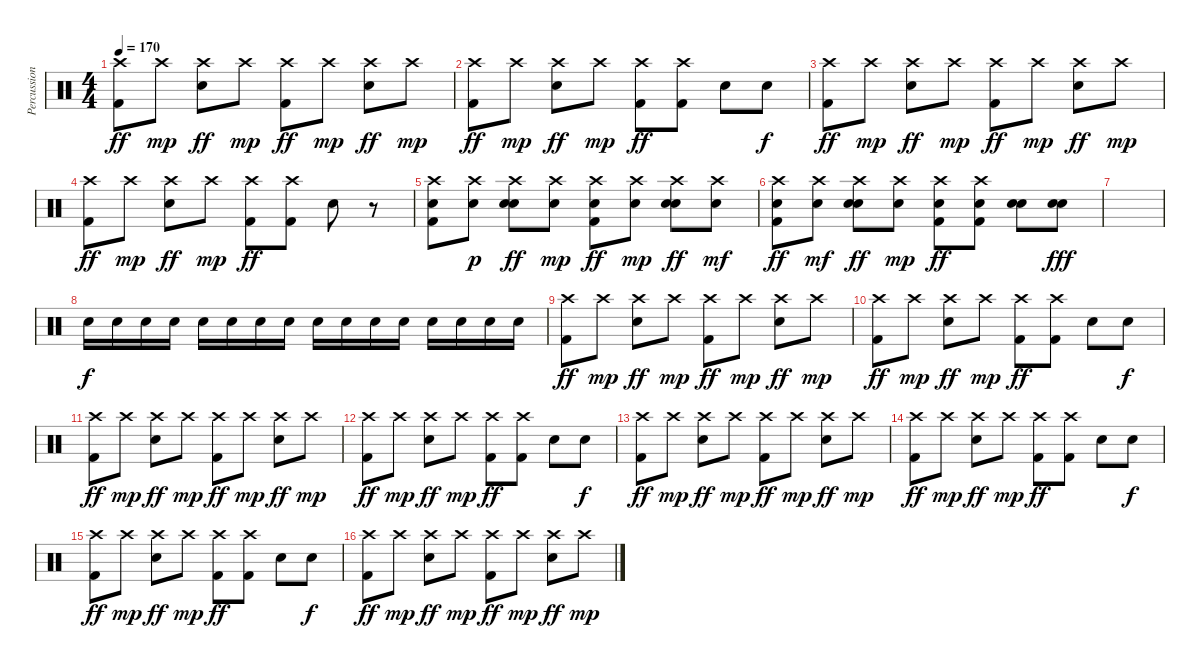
\track ("Percussion" "Percussion") {instrument percussion}
\staff {score}
\articulation defaults
\ts (4 4)
\tempo 170
\clef neutral
\ks c
("Crash high (hit)" "Kick (hit) 2").8{dy ff} "Crash high (hit)".8{dy mp} ("Crash high (hit)" "Electric Snare (hit)").8{dy ff} "Crash high (hit)".8{dy mp} ("Crash high (hit)" "Kick (hit) 2").8{dy ff} "Crash high (hit)".8{dy mp} ("Crash high (hit)" "Electric Snare (hit)").8{dy ff} "Crash high (hit)".8{dy mp} |
("Crash high (hit)" "Kick (hit) 2").8{dy ff} "Crash high (hit)".8{dy mp} ("Crash high (hit)" "Electric Snare (hit)").8{dy ff} "Crash high (hit)".8{dy mp} ("Crash high (hit)" "Kick (hit) 2").8{dy ff} ("Crash high (hit)" "Kick (hit) 2").8 "Electric Snare (hit)".8 "Electric Snare (hit)".8{dy f} |
("Crash high (hit)" "Kick (hit) 2").8{dy ff} "Crash high (hit)".8{dy mp} ("Crash high (hit)" "Electric Snare (hit)").8{dy ff} "Crash high (hit)".8{dy mp} ("Crash high (hit)" "Kick (hit) 2").8{dy ff} "Crash high (hit)".8{dy mp} ("Crash high (hit)" "Electric Snare (hit)").8{dy ff} "Crash high (hit)".8{dy mp} |
("Crash high (hit)" "Kick (hit) 2").8{dy ff} "Crash high (hit)".8{dy mp} ("Crash high (hit)" "Electric Snare (hit)").8{dy ff} "Crash high (hit)".8{dy mp} ("Crash high (hit)" "Kick (hit) 2").8{dy ff} ("Crash high (hit)" "Kick (hit) 2").8 "Electric Snare (hit)".8 r.8 |
("Crash high (hit)" "Electric Snare (hit)" "Kick (hit) 2").8 ("Crash high (hit)" "Electric Snare (hit)").8{dy p} ("Crash high (hit)" "Electric Snare (hit)" "Electric Snare (hit)").8{dy ff} ("Crash high (hit)" "Electric Snare (hit)").8{dy mp} ("Crash high (hit)" "Electric Snare (hit)" "Kick (hit) 2").8{dy ff} ("Crash high (hit)" "Electric Snare (hit)").8{dy mp} ("Crash high (hit)" "Electric Snare (hit)" "Electric Snare (hit)").8{dy ff} ("Crash high (hit)" "Electric Snare (hit)").8{dy mf} |
("Crash high (hit)" "Electric Snare (hit)" "Kick (hit) 2").8{dy ff} ("Crash high (hit)" "Electric Snare (hit)").8{dy mf} ("Crash high (hit)" "Electric Snare (hit)" "Electric Snare (hit)").8{dy ff} ("Crash high (hit)" "Electric Snare (hit)").8{dy mp} ("Crash high (hit)" "Electric Snare (hit)" "Kick (hit) 2").8{dy ff} ("Crash high (hit)" "Electric Snare (hit)" "Kick (hit) 2").8 ("Electric Snare (hit)" "Electric Snare (hit)").8 ("Electric Snare (hit)" "Electric Snare (hit)").8{dy fff} |
|
"Electric Snare (hit)".16{dy f} "Electric Snare (hit)".16 "Electric Snare (hit)".16 "Electric Snare (hit)".16 "Electric Snare (hit)".16 "Electric Snare (hit)".16 "Electric Snare (hit)".16 "Electric Snare (hit)".16 "Electric Snare (hit)".16 "Electric Snare (hit)".16 "Electric Snare (hit)".16 "Electric Snare (hit)".16 "Electric Snare (hit)".16 "Electric Snare (hit)".16 "Electric Snare (hit)".16 "Electric Snare (hit)".16 |
("Crash high (hit)" "Kick (hit) 2").8{dy ff} "Crash high (hit)".8{dy mp} ("Crash high (hit)" "Electric Snare (hit)").8{dy ff} "Crash high (hit)".8{dy mp} ("Crash high (hit)" "Kick (hit) 2").8{dy ff} "Crash high (hit)".8{dy mp} ("Crash high (hit)" "Electric Snare (hit)").8{dy ff} "Crash high (hit)".8{dy mp} |
("Crash high (hit)" "Kick (hit) 2").8{dy ff} "Crash high (hit)".8{dy mp} ("Crash high (hit)" "Electric Snare (hit)").8{dy ff} "Crash high (hit)".8{dy mp} ("Crash high (hit)" "Kick (hit) 2").8{dy ff} ("Crash high (hit)" "Kick (hit) 2").8 "Electric Snare (hit)".8 "Electric Snare (hit)".8{dy f} |
("Crash high (hit)" "Kick (hit) 2").8{dy ff} "Crash high (hit)".8{dy mp} ("Crash high (hit)" "Electric Snare (hit)").8{dy ff} "Crash high (hit)".8{dy mp} ("Crash high (hit)" "Kick (hit) 2").8{dy ff} "Crash high (hit)".8{dy mp} ("Crash high (hit)" "Electric Snare (hit)").8{dy ff} "Crash high (hit)".8{dy mp} |
("Crash high (hit)" "Kick (hit) 2").8{dy ff} "Crash high (hit)".8{dy mp} ("Crash high (hit)" "Electric Snare (hit)").8{dy ff} "Crash high (hit)".8{dy mp} ("Crash high (hit)" "Kick (hit) 2").8{dy ff} ("Crash high (hit)" "Kick (hit) 2").8 "Electric Snare (hit)".8 "Electric Snare (hit)".8{dy f} |
("Crash high (hit)" "Kick (hit) 2").8{dy ff} "Crash high (hit)".8{dy mp} ("Crash high (hit)" "Electric Snare (hit)").8{dy ff} "Crash high (hit)".8{dy mp} ("Crash high (hit)" "Kick (hit) 2").8{dy ff} "Crash high (hit)".8{dy mp} ("Crash high (hit)" "Electric Snare (hit)").8{dy ff} "Crash high (hit)".8{dy mp} |
("Crash high (hit)" "Kick (hit) 2").8{dy ff} "Crash high (hit)".8{dy mp} ("Crash high (hit)" "Electric Snare (hit)").8{dy ff} "Crash high (hit)".8{dy mp} ("Crash high (hit)" "Kick (hit) 2").8{dy ff} ("Crash high (hit)" "Kick (hit) 2").8 "Electric Snare (hit)".8 "Electric Snare (hit)".8{dy f} |
("Crash high (hit)" "Kick (hit) 2").8{dy ff} "Crash high (hit)".8{dy mp} ("Crash high (hit)" "Electric Snare (hit)").8{dy ff} "Crash high (hit)".8{dy mp} ("Crash high (hit)" "Kick (hit) 2").8{dy ff} ("Crash high (hit)" "Kick (hit) 2").8 "Electric Snare (hit)".8 "Electric Snare (hit)".8{dy f} |
("Crash high (hit)" "Kick (hit) 2").8{dy ff} "Crash high (hit)".8{dy mp} ("Crash high (hit)" "Electric Snare (hit)").8{dy ff} "Crash high (hit)".8{dy mp} ("Crash high (hit)" "Kick (hit) 2").8{dy ff} "Crash high (hit)".8{dy mp} ("Crash high (hit)" "Electric Snare (hit)").8{dy ff} "Crash high (hit)".8{dy mp}
